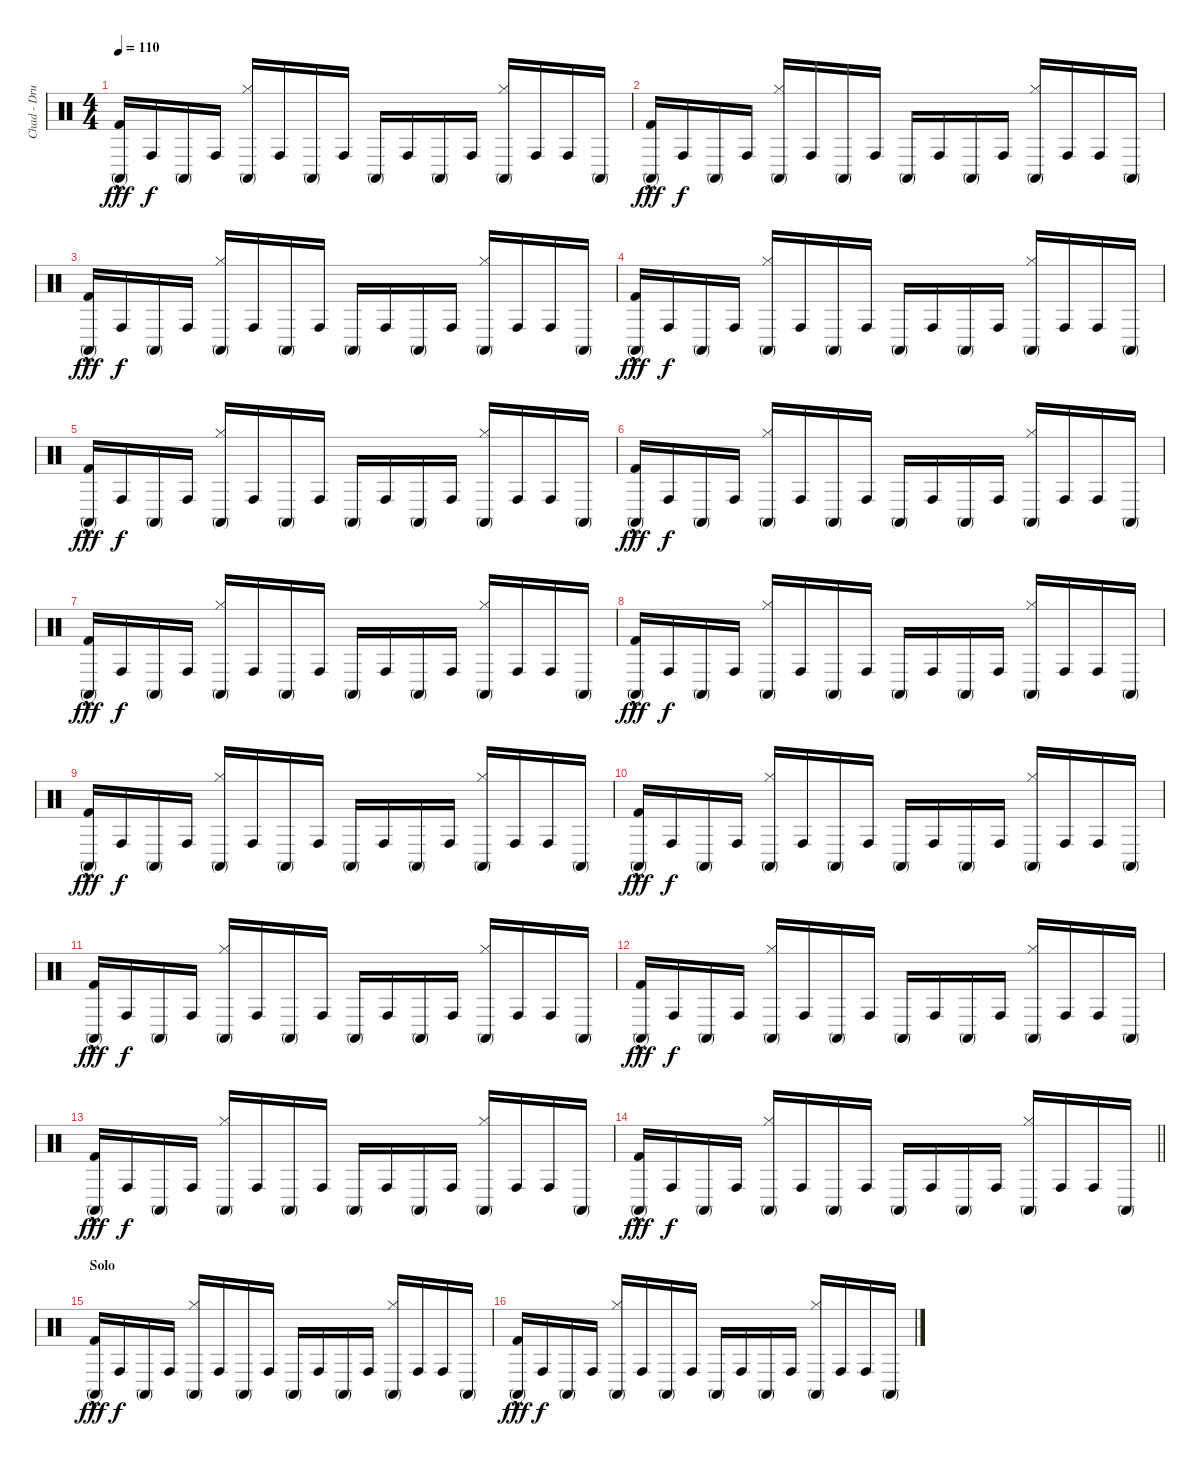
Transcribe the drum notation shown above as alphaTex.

\track ("Chad - Drums" "Chad - Dru") {instrument percussion}
\staff {score}
\articulation defaults
\ts (4 4)
\tempo 110
\clef neutral
\ks c
("Conga high (mute)" "Kick (hit) 2"{hac}).16{dy fff} "Conga high (hit)".16{dy f} "Conga high (mute)".16 "Conga high (hit)".16 ("Conga high (mute)" "Hi-Hat (closed)").16 "Conga high (hit)".16 "Conga high (mute)".16 "Conga high (hit)".16 "Conga high (mute)".16 "Conga high (hit)".16 "Conga high (mute)".16 "Conga high (hit)".16 ("Conga high (mute)" "Hi-Hat (closed)").16 "Conga high (hit)".16 "Conga high (hit)".16 "Conga high (mute)".16 |
("Conga high (mute)" "Kick (hit) 2"{hac}).16{dy fff} "Conga high (hit)".16{dy f} "Conga high (mute)".16 "Conga high (hit)".16 ("Conga high (mute)" "Hi-Hat (closed)").16 "Conga high (hit)".16 "Conga high (mute)".16 "Conga high (hit)".16 "Conga high (mute)".16 "Conga high (hit)".16 "Conga high (mute)".16 "Conga high (hit)".16 ("Conga high (mute)" "Hi-Hat (closed)").16 "Conga high (hit)".16 "Conga high (hit)".16 "Conga high (mute)".16 |
("Conga high (mute)" "Kick (hit) 2"{hac}).16{dy fff} "Conga high (hit)".16{dy f} "Conga high (mute)".16 "Conga high (hit)".16 ("Conga high (mute)" "Hi-Hat (closed)").16 "Conga high (hit)".16 "Conga high (mute)".16 "Conga high (hit)".16 "Conga high (mute)".16 "Conga high (hit)".16 "Conga high (mute)".16 "Conga high (hit)".16 ("Conga high (mute)" "Hi-Hat (closed)").16 "Conga high (hit)".16 "Conga high (hit)".16 "Conga high (mute)".16 |
("Conga high (mute)" "Kick (hit) 2"{hac}).16{dy fff} "Conga high (hit)".16{dy f} "Conga high (mute)".16 "Conga high (hit)".16 ("Conga high (mute)" "Hi-Hat (closed)").16 "Conga high (hit)".16 "Conga high (mute)".16 "Conga high (hit)".16 "Conga high (mute)".16 "Conga high (hit)".16 "Conga high (mute)".16 "Conga high (hit)".16 ("Conga high (mute)" "Hi-Hat (closed)").16 "Conga high (hit)".16 "Conga high (hit)".16 "Conga high (mute)".16 |
("Conga high (mute)" "Kick (hit) 2"{hac}).16{dy fff} "Conga high (hit)".16{dy f} "Conga high (mute)".16 "Conga high (hit)".16 ("Conga high (mute)" "Hi-Hat (closed)").16 "Conga high (hit)".16 "Conga high (mute)".16 "Conga high (hit)".16 "Conga high (mute)".16 "Conga high (hit)".16 "Conga high (mute)".16 "Conga high (hit)".16 ("Conga high (mute)" "Hi-Hat (closed)").16 "Conga high (hit)".16 "Conga high (hit)".16 "Conga high (mute)".16 |
("Conga high (mute)" "Kick (hit) 2"{hac}).16{dy fff} "Conga high (hit)".16{dy f} "Conga high (mute)".16 "Conga high (hit)".16 ("Conga high (mute)" "Hi-Hat (closed)").16 "Conga high (hit)".16 "Conga high (mute)".16 "Conga high (hit)".16 "Conga high (mute)".16 "Conga high (hit)".16 "Conga high (mute)".16 "Conga high (hit)".16 ("Conga high (mute)" "Hi-Hat (closed)").16 "Conga high (hit)".16 "Conga high (hit)".16 "Conga high (mute)".16 |
("Conga high (mute)" "Kick (hit) 2"{hac}).16{dy fff} "Conga high (hit)".16{dy f} "Conga high (mute)".16 "Conga high (hit)".16 ("Conga high (mute)" "Hi-Hat (closed)").16 "Conga high (hit)".16 "Conga high (mute)".16 "Conga high (hit)".16 "Conga high (mute)".16 "Conga high (hit)".16 "Conga high (mute)".16 "Conga high (hit)".16 ("Conga high (mute)" "Hi-Hat (closed)").16 "Conga high (hit)".16 "Conga high (hit)".16 "Conga high (mute)".16 |
("Conga high (mute)" "Kick (hit) 2"{hac}).16{dy fff} "Conga high (hit)".16{dy f} "Conga high (mute)".16 "Conga high (hit)".16 ("Conga high (mute)" "Hi-Hat (closed)").16 "Conga high (hit)".16 "Conga high (mute)".16 "Conga high (hit)".16 "Conga high (mute)".16 "Conga high (hit)".16 "Conga high (mute)".16 "Conga high (hit)".16 ("Conga high (mute)" "Hi-Hat (closed)").16 "Conga high (hit)".16 "Conga high (hit)".16 "Conga high (mute)".16 |
("Conga high (mute)" "Kick (hit) 2"{hac}).16{dy fff} "Conga high (hit)".16{dy f} "Conga high (mute)".16 "Conga high (hit)".16 ("Conga high (mute)" "Hi-Hat (closed)").16 "Conga high (hit)".16 "Conga high (mute)".16 "Conga high (hit)".16 "Conga high (mute)".16 "Conga high (hit)".16 "Conga high (mute)".16 "Conga high (hit)".16 ("Conga high (mute)" "Hi-Hat (closed)").16 "Conga high (hit)".16 "Conga high (hit)".16 "Conga high (mute)".16 |
("Conga high (mute)" "Kick (hit) 2"{hac}).16{dy fff} "Conga high (hit)".16{dy f} "Conga high (mute)".16 "Conga high (hit)".16 ("Conga high (mute)" "Hi-Hat (closed)").16 "Conga high (hit)".16 "Conga high (mute)".16 "Conga high (hit)".16 "Conga high (mute)".16 "Conga high (hit)".16 "Conga high (mute)".16 "Conga high (hit)".16 ("Conga high (mute)" "Hi-Hat (closed)").16 "Conga high (hit)".16 "Conga high (hit)".16 "Conga high (mute)".16 |
("Conga high (mute)" "Kick (hit) 2"{hac}).16{dy fff} "Conga high (hit)".16{dy f} "Conga high (mute)".16 "Conga high (hit)".16 ("Conga high (mute)" "Hi-Hat (closed)").16 "Conga high (hit)".16 "Conga high (mute)".16 "Conga high (hit)".16 "Conga high (mute)".16 "Conga high (hit)".16 "Conga high (mute)".16 "Conga high (hit)".16 ("Conga high (mute)" "Hi-Hat (closed)").16 "Conga high (hit)".16 "Conga high (hit)".16 "Conga high (mute)".16 |
("Conga high (mute)" "Kick (hit) 2"{hac}).16{dy fff} "Conga high (hit)".16{dy f} "Conga high (mute)".16 "Conga high (hit)".16 ("Conga high (mute)" "Hi-Hat (closed)").16 "Conga high (hit)".16 "Conga high (mute)".16 "Conga high (hit)".16 "Conga high (mute)".16 "Conga high (hit)".16 "Conga high (mute)".16 "Conga high (hit)".16 ("Conga high (mute)" "Hi-Hat (closed)").16 "Conga high (hit)".16 "Conga high (hit)".16 "Conga high (mute)".16 |
("Conga high (mute)" "Kick (hit) 2"{hac}).16{dy fff} "Conga high (hit)".16{dy f} "Conga high (mute)".16 "Conga high (hit)".16 ("Conga high (mute)" "Hi-Hat (closed)").16 "Conga high (hit)".16 "Conga high (mute)".16 "Conga high (hit)".16 "Conga high (mute)".16 "Conga high (hit)".16 "Conga high (mute)".16 "Conga high (hit)".16 ("Conga high (mute)" "Hi-Hat (closed)").16 "Conga high (hit)".16 "Conga high (hit)".16 "Conga high (mute)".16 |
\barLineRight lightlight
("Conga high (mute)" "Kick (hit) 2"{hac}).16{dy fff} "Conga high (hit)".16{dy f} "Conga high (mute)".16 "Conga high (hit)".16 ("Conga high (mute)" "Hi-Hat (closed)").16 "Conga high (hit)".16 "Conga high (mute)".16 "Conga high (hit)".16 "Conga high (mute)".16 "Conga high (hit)".16 "Conga high (mute)".16 "Conga high (hit)".16 ("Conga high (mute)" "Hi-Hat (closed)").16 "Conga high (hit)".16 "Conga high (hit)".16 "Conga high (mute)".16 |
\section ("" "Solo")
("Conga high (mute)" "Kick (hit) 2"{hac}).16{dy fff} "Conga high (hit)".16{dy f} "Conga high (mute)".16 "Conga high (hit)".16 ("Conga high (mute)" "Hi-Hat (closed)").16 "Conga high (hit)".16 "Conga high (mute)".16 "Conga high (hit)".16 "Conga high (mute)".16 "Conga high (hit)".16 "Conga high (mute)".16 "Conga high (hit)".16 ("Conga high (mute)" "Hi-Hat (closed)").16 "Conga high (hit)".16 "Conga high (hit)".16 "Conga high (mute)".16 |
("Conga high (mute)" "Kick (hit) 2"{hac}).16{dy fff} "Conga high (hit)".16{dy f} "Conga high (mute)".16 "Conga high (hit)".16 ("Conga high (mute)" "Hi-Hat (closed)").16 "Conga high (hit)".16 "Conga high (mute)".16 "Conga high (hit)".16 "Conga high (mute)".16 "Conga high (hit)".16 "Conga high (mute)".16 "Conga high (hit)".16 ("Conga high (mute)" "Hi-Hat (closed)").16 "Conga high (hit)".16 "Conga high (hit)".16 "Conga high (mute)".16
